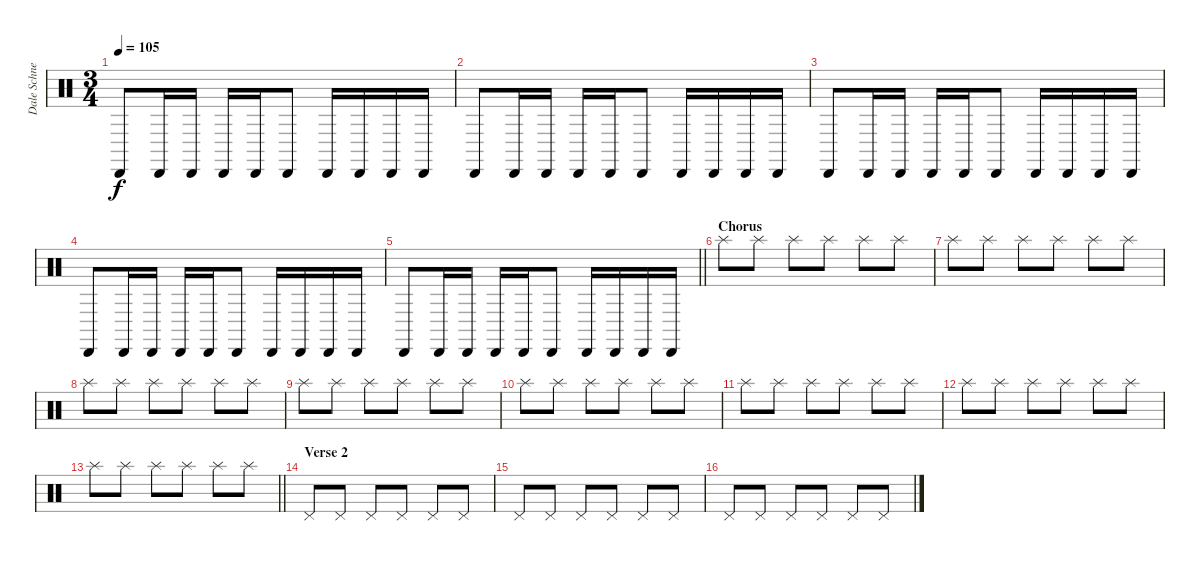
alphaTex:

\track ("Dale Schnettler (Drums)" "Dale Schne") {instrument percussion}
\staff {score}
\articulation defaults
\ts (3 4)
\tempo 105
\clef neutral
\ks c "Cabasa (hit)".8{dy f} "Cabasa (hit)".16 "Cabasa (hit)".16 "Cabasa (hit)".16 "Cabasa (hit)".16 "Cabasa (hit)".8 "Cabasa (hit)".16 "Cabasa (hit)".16 "Cabasa (hit)".16 "Cabasa (hit)".16
|
"Cabasa (hit)".8 "Cabasa (hit)".16 "Cabasa (hit)".16 "Cabasa (hit)".16 "Cabasa (hit)".16 "Cabasa (hit)".8 "Cabasa (hit)".16 "Cabasa (hit)".16 "Cabasa (hit)".16 "Cabasa (hit)".16 |
"Cabasa (hit)".8 "Cabasa (hit)".16 "Cabasa (hit)".16 "Cabasa (hit)".16 "Cabasa (hit)".16 "Cabasa (hit)".8 "Cabasa (hit)".16 "Cabasa (hit)".16 "Cabasa (hit)".16 "Cabasa (hit)".16 |
"Cabasa (hit)".8 "Cabasa (hit)".16 "Cabasa (hit)".16 "Cabasa (hit)".16 "Cabasa (hit)".16 "Cabasa (hit)".8 "Cabasa (hit)".16 "Cabasa (hit)".16 "Cabasa (hit)".16 "Cabasa (hit)".16 |
\barLineRight lightlight "Cabasa (hit)".8 "Cabasa (hit)".16 "Cabasa (hit)".16 "Cabasa (hit)".16 "Cabasa (hit)".16 "Cabasa (hit)".8 "Cabasa (hit)".16 "Cabasa (hit)".16 "Cabasa (hit)".16 "Cabasa (hit)".16
|
\section ("" "Chorus")
"Splash (hit)".8 "Splash (hit)".8 "Splash (hit)".8 "Splash (hit)".8 "Splash (hit)".8 "Splash (hit)".8 |
"Splash (hit)".8 "Splash (hit)".8 "Splash (hit)".8 "Splash (hit)".8 "Splash (hit)".8 "Splash (hit)".8 |
"Splash (hit)".8 "Splash (hit)".8 "Splash (hit)".8 "Splash (hit)".8 "Splash (hit)".8 "Splash (hit)".8 |
"Splash (hit)".8 "Splash (hit)".8 "Splash (hit)".8 "Splash (hit)".8 "Splash (hit)".8 "Splash (hit)".8 |
"Splash (hit)".8 "Splash (hit)".8 "Splash (hit)".8 "Splash (hit)".8 "Splash (hit)".8 "Splash (hit)".8 |
"Splash (hit)".8 "Splash (hit)".8 "Splash (hit)".8 "Splash (hit)".8 "Splash (hit)".8 "Splash (hit)".8 |
"Splash (hit)".8 "Splash (hit)".8 "Splash (hit)".8 "Splash (hit)".8 "Splash (hit)".8 "Splash (hit)".8 |
\barLineRight lightlight "Splash (hit)".8 "Splash (hit)".8 "Splash (hit)".8 "Splash (hit)".8 "Splash (hit)".8 "Splash (hit)".8
|
\section ("" "Verse 2")
"Pedal Hi-Hat (hit)".8 "Pedal Hi-Hat (hit)".8 "Pedal Hi-Hat (hit)".8 "Pedal Hi-Hat (hit)".8 "Pedal Hi-Hat (hit)".8 "Pedal Hi-Hat (hit)".8 |
"Pedal Hi-Hat (hit)".8 "Pedal Hi-Hat (hit)".8 "Pedal Hi-Hat (hit)".8 "Pedal Hi-Hat (hit)".8 "Pedal Hi-Hat (hit)".8 "Pedal Hi-Hat (hit)".8 |
"Pedal Hi-Hat (hit)".8 "Pedal Hi-Hat (hit)".8 "Pedal Hi-Hat (hit)".8 "Pedal Hi-Hat (hit)".8 "Pedal Hi-Hat (hit)".8 "Pedal Hi-Hat (hit)".8
